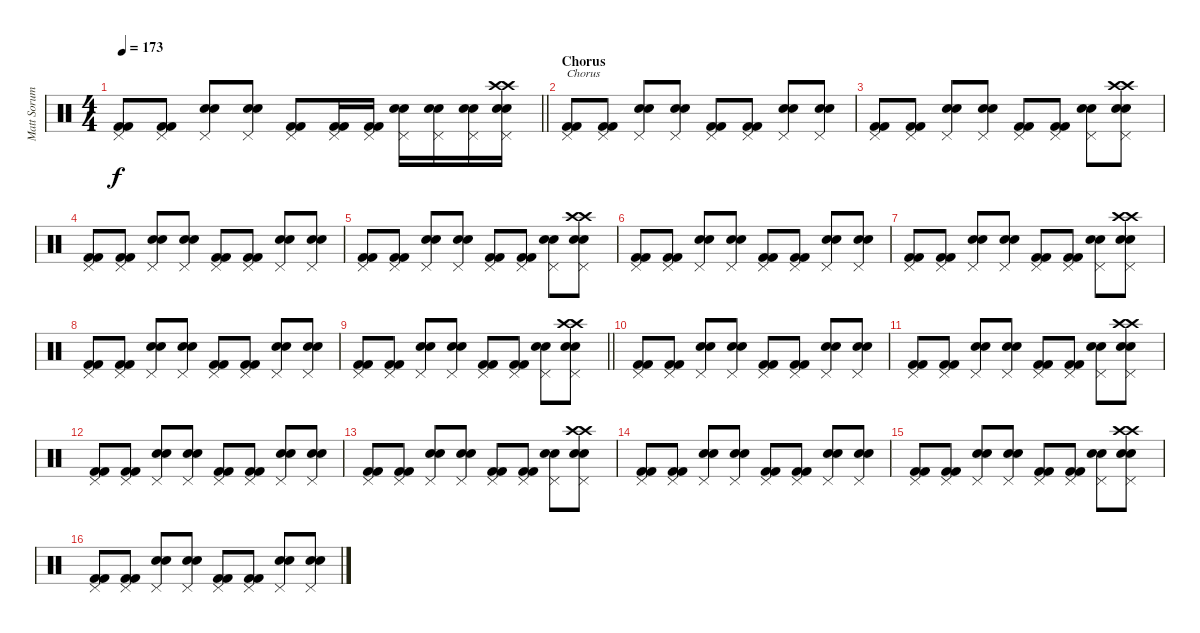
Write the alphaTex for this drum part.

\track ("Matt Sorum" "Matt Sorum") {instrument percussion}
\staff {score}
\articulation defaults
\ts (4 4)
\tempo 173
\clef neutral
\barLineRight lightlight
\ks c
("Pedal Hi-Hat (hit)" "Kick (hit) 2" "Kick (hit) 2").8{dy f} ("Pedal Hi-Hat (hit)" "Kick (hit) 2" "Kick (hit) 2").8 ("Pedal Hi-Hat (hit)" "Snare (hit) 2" "Snare (hit) 2").8 ("Pedal Hi-Hat (hit)" "Snare (hit) 2" "Snare (hit) 2").8 ("Pedal Hi-Hat (hit)" "Kick (hit) 2" "Kick (hit) 2").8 ("Pedal Hi-Hat (hit)" "Kick (hit) 2" "Kick (hit) 2").16 ("Pedal Hi-Hat (hit)" "Kick (hit) 2" "Kick (hit) 2").16 ("Pedal Hi-Hat (hit)" "Snare (hit) 2" "Snare (hit) 2").16 ("Pedal Hi-Hat (hit)" "Snare (hit) 2" "Snare (hit) 2").16 ("Pedal Hi-Hat (hit)" "Snare (hit) 2" "Snare (hit) 2").16 ("Crash high (hit)" "Crash high (hit)" "Pedal Hi-Hat (hit)" "Snare (hit) 2" "Snare (hit) 2").16 |
\section ("" "Chorus")
("Pedal Hi-Hat (hit)" "Kick (hit) 2" "Kick (hit) 2").8{txt "Chorus"} ("Pedal Hi-Hat (hit)" "Kick (hit) 2" "Kick (hit) 2").8 ("Pedal Hi-Hat (hit)" "Snare (hit) 2" "Snare (hit) 2").8 ("Pedal Hi-Hat (hit)" "Snare (hit) 2" "Snare (hit) 2").8 ("Pedal Hi-Hat (hit)" "Kick (hit) 2" "Kick (hit) 2").8 ("Pedal Hi-Hat (hit)" "Kick (hit) 2" "Kick (hit) 2").8 ("Pedal Hi-Hat (hit)" "Snare (hit) 2" "Snare (hit) 2").8 ("Pedal Hi-Hat (hit)" "Snare (hit) 2" "Snare (hit) 2").8 |
("Pedal Hi-Hat (hit)" "Kick (hit) 2" "Kick (hit) 2").8 ("Pedal Hi-Hat (hit)" "Kick (hit) 2" "Kick (hit) 2").8 ("Pedal Hi-Hat (hit)" "Snare (hit) 2" "Snare (hit) 2").8 ("Pedal Hi-Hat (hit)" "Snare (hit) 2" "Snare (hit) 2").8 ("Pedal Hi-Hat (hit)" "Kick (hit) 2" "Kick (hit) 2").8 ("Pedal Hi-Hat (hit)" "Kick (hit) 2" "Kick (hit) 2").8 ("Pedal Hi-Hat (hit)" "Snare (hit) 2" "Snare (hit) 2").8 ("Crash high (hit)" "Crash high (hit)" "Pedal Hi-Hat (hit)" "Snare (hit) 2" "Snare (hit) 2").8 |
("Pedal Hi-Hat (hit)" "Kick (hit) 2" "Kick (hit) 2").8 ("Pedal Hi-Hat (hit)" "Kick (hit) 2" "Kick (hit) 2").8 ("Pedal Hi-Hat (hit)" "Snare (hit) 2" "Snare (hit) 2").8 ("Pedal Hi-Hat (hit)" "Snare (hit) 2" "Snare (hit) 2").8 ("Pedal Hi-Hat (hit)" "Kick (hit) 2" "Kick (hit) 2").8 ("Pedal Hi-Hat (hit)" "Kick (hit) 2" "Kick (hit) 2").8 ("Pedal Hi-Hat (hit)" "Snare (hit) 2" "Snare (hit) 2").8 ("Pedal Hi-Hat (hit)" "Snare (hit) 2" "Snare (hit) 2").8 |
("Pedal Hi-Hat (hit)" "Kick (hit) 2" "Kick (hit) 2").8 ("Pedal Hi-Hat (hit)" "Kick (hit) 2" "Kick (hit) 2").8 ("Pedal Hi-Hat (hit)" "Snare (hit) 2" "Snare (hit) 2").8 ("Pedal Hi-Hat (hit)" "Snare (hit) 2" "Snare (hit) 2").8 ("Pedal Hi-Hat (hit)" "Kick (hit) 2" "Kick (hit) 2").8 ("Pedal Hi-Hat (hit)" "Kick (hit) 2" "Kick (hit) 2").8 ("Pedal Hi-Hat (hit)" "Snare (hit) 2" "Snare (hit) 2").8 ("Crash high (hit)" "Crash high (hit)" "Pedal Hi-Hat (hit)" "Snare (hit) 2" "Snare (hit) 2").8 |
("Pedal Hi-Hat (hit)" "Kick (hit) 2" "Kick (hit) 2").8 ("Pedal Hi-Hat (hit)" "Kick (hit) 2" "Kick (hit) 2").8 ("Pedal Hi-Hat (hit)" "Snare (hit) 2" "Snare (hit) 2").8 ("Pedal Hi-Hat (hit)" "Snare (hit) 2" "Snare (hit) 2").8 ("Pedal Hi-Hat (hit)" "Kick (hit) 2" "Kick (hit) 2").8 ("Pedal Hi-Hat (hit)" "Kick (hit) 2" "Kick (hit) 2").8 ("Pedal Hi-Hat (hit)" "Snare (hit) 2" "Snare (hit) 2").8 ("Pedal Hi-Hat (hit)" "Snare (hit) 2" "Snare (hit) 2").8 |
("Pedal Hi-Hat (hit)" "Kick (hit) 2" "Kick (hit) 2").8 ("Pedal Hi-Hat (hit)" "Kick (hit) 2" "Kick (hit) 2").8 ("Pedal Hi-Hat (hit)" "Snare (hit) 2" "Snare (hit) 2").8 ("Pedal Hi-Hat (hit)" "Snare (hit) 2" "Snare (hit) 2").8 ("Pedal Hi-Hat (hit)" "Kick (hit) 2" "Kick (hit) 2").8 ("Pedal Hi-Hat (hit)" "Kick (hit) 2" "Kick (hit) 2").8 ("Pedal Hi-Hat (hit)" "Snare (hit) 2" "Snare (hit) 2").8 ("Crash high (hit)" "Crash high (hit)" "Pedal Hi-Hat (hit)" "Snare (hit) 2" "Snare (hit) 2").8 |
("Pedal Hi-Hat (hit)" "Kick (hit) 2" "Kick (hit) 2").8 ("Pedal Hi-Hat (hit)" "Kick (hit) 2" "Kick (hit) 2").8 ("Pedal Hi-Hat (hit)" "Snare (hit) 2" "Snare (hit) 2").8 ("Pedal Hi-Hat (hit)" "Snare (hit) 2" "Snare (hit) 2").8 ("Pedal Hi-Hat (hit)" "Kick (hit) 2" "Kick (hit) 2").8 ("Pedal Hi-Hat (hit)" "Kick (hit) 2" "Kick (hit) 2").8 ("Pedal Hi-Hat (hit)" "Snare (hit) 2" "Snare (hit) 2").8 ("Pedal Hi-Hat (hit)" "Snare (hit) 2" "Snare (hit) 2").8 |
\barLineRight lightlight
("Pedal Hi-Hat (hit)" "Kick (hit) 2" "Kick (hit) 2").8 ("Pedal Hi-Hat (hit)" "Kick (hit) 2" "Kick (hit) 2").8 ("Pedal Hi-Hat (hit)" "Snare (hit) 2" "Snare (hit) 2").8 ("Pedal Hi-Hat (hit)" "Snare (hit) 2" "Snare (hit) 2").8 ("Pedal Hi-Hat (hit)" "Kick (hit) 2" "Kick (hit) 2").8 ("Pedal Hi-Hat (hit)" "Kick (hit) 2" "Kick (hit) 2").8 ("Pedal Hi-Hat (hit)" "Snare (hit) 2" "Snare (hit) 2").8 ("Crash high (hit)" "Crash high (hit)" "Pedal Hi-Hat (hit)" "Snare (hit) 2" "Snare (hit) 2").8 |
("Pedal Hi-Hat (hit)" "Kick (hit) 2" "Kick (hit) 2").8 ("Pedal Hi-Hat (hit)" "Kick (hit) 2" "Kick (hit) 2").8 ("Pedal Hi-Hat (hit)" "Snare (hit) 2" "Snare (hit) 2").8 ("Pedal Hi-Hat (hit)" "Snare (hit) 2" "Snare (hit) 2").8 ("Pedal Hi-Hat (hit)" "Kick (hit) 2" "Kick (hit) 2").8 ("Pedal Hi-Hat (hit)" "Kick (hit) 2" "Kick (hit) 2").8 ("Pedal Hi-Hat (hit)" "Snare (hit) 2" "Snare (hit) 2").8 ("Pedal Hi-Hat (hit)" "Snare (hit) 2" "Snare (hit) 2").8 |
("Pedal Hi-Hat (hit)" "Kick (hit) 2" "Kick (hit) 2").8 ("Pedal Hi-Hat (hit)" "Kick (hit) 2" "Kick (hit) 2").8 ("Pedal Hi-Hat (hit)" "Snare (hit) 2" "Snare (hit) 2").8 ("Pedal Hi-Hat (hit)" "Snare (hit) 2" "Snare (hit) 2").8 ("Pedal Hi-Hat (hit)" "Kick (hit) 2" "Kick (hit) 2").8 ("Pedal Hi-Hat (hit)" "Kick (hit) 2" "Kick (hit) 2").8 ("Pedal Hi-Hat (hit)" "Snare (hit) 2" "Snare (hit) 2").8 ("Crash high (hit)" "Crash high (hit)" "Pedal Hi-Hat (hit)" "Snare (hit) 2" "Snare (hit) 2").8 |
("Pedal Hi-Hat (hit)" "Kick (hit) 2" "Kick (hit) 2").8 ("Pedal Hi-Hat (hit)" "Kick (hit) 2" "Kick (hit) 2").8 ("Pedal Hi-Hat (hit)" "Snare (hit) 2" "Snare (hit) 2").8 ("Pedal Hi-Hat (hit)" "Snare (hit) 2" "Snare (hit) 2").8 ("Pedal Hi-Hat (hit)" "Kick (hit) 2" "Kick (hit) 2").8 ("Pedal Hi-Hat (hit)" "Kick (hit) 2" "Kick (hit) 2").8 ("Pedal Hi-Hat (hit)" "Snare (hit) 2" "Snare (hit) 2").8 ("Pedal Hi-Hat (hit)" "Snare (hit) 2" "Snare (hit) 2").8 |
("Pedal Hi-Hat (hit)" "Kick (hit) 2" "Kick (hit) 2").8 ("Pedal Hi-Hat (hit)" "Kick (hit) 2" "Kick (hit) 2").8 ("Pedal Hi-Hat (hit)" "Snare (hit) 2" "Snare (hit) 2").8 ("Pedal Hi-Hat (hit)" "Snare (hit) 2" "Snare (hit) 2").8 ("Pedal Hi-Hat (hit)" "Kick (hit) 2" "Kick (hit) 2").8 ("Pedal Hi-Hat (hit)" "Kick (hit) 2" "Kick (hit) 2").8 ("Pedal Hi-Hat (hit)" "Snare (hit) 2" "Snare (hit) 2").8 ("Crash high (hit)" "Crash high (hit)" "Pedal Hi-Hat (hit)" "Snare (hit) 2" "Snare (hit) 2").8 |
("Pedal Hi-Hat (hit)" "Kick (hit) 2" "Kick (hit) 2").8 ("Pedal Hi-Hat (hit)" "Kick (hit) 2" "Kick (hit) 2").8 ("Pedal Hi-Hat (hit)" "Snare (hit) 2" "Snare (hit) 2").8 ("Pedal Hi-Hat (hit)" "Snare (hit) 2" "Snare (hit) 2").8 ("Pedal Hi-Hat (hit)" "Kick (hit) 2" "Kick (hit) 2").8 ("Pedal Hi-Hat (hit)" "Kick (hit) 2" "Kick (hit) 2").8 ("Pedal Hi-Hat (hit)" "Snare (hit) 2" "Snare (hit) 2").8 ("Pedal Hi-Hat (hit)" "Snare (hit) 2" "Snare (hit) 2").8 |
("Pedal Hi-Hat (hit)" "Kick (hit) 2" "Kick (hit) 2").8 ("Pedal Hi-Hat (hit)" "Kick (hit) 2" "Kick (hit) 2").8 ("Pedal Hi-Hat (hit)" "Snare (hit) 2" "Snare (hit) 2").8 ("Pedal Hi-Hat (hit)" "Snare (hit) 2" "Snare (hit) 2").8 ("Pedal Hi-Hat (hit)" "Kick (hit) 2" "Kick (hit) 2").8 ("Pedal Hi-Hat (hit)" "Kick (hit) 2" "Kick (hit) 2").8 ("Pedal Hi-Hat (hit)" "Snare (hit) 2" "Snare (hit) 2").8 ("Crash high (hit)" "Crash high (hit)" "Pedal Hi-Hat (hit)" "Snare (hit) 2" "Snare (hit) 2").8 |
("Pedal Hi-Hat (hit)" "Kick (hit) 2" "Kick (hit) 2").8 ("Pedal Hi-Hat (hit)" "Kick (hit) 2" "Kick (hit) 2").8 ("Pedal Hi-Hat (hit)" "Snare (hit) 2" "Snare (hit) 2").8 ("Pedal Hi-Hat (hit)" "Snare (hit) 2" "Snare (hit) 2").8 ("Pedal Hi-Hat (hit)" "Kick (hit) 2" "Kick (hit) 2").8 ("Pedal Hi-Hat (hit)" "Kick (hit) 2" "Kick (hit) 2").8 ("Pedal Hi-Hat (hit)" "Snare (hit) 2" "Snare (hit) 2").8 ("Pedal Hi-Hat (hit)" "Snare (hit) 2" "Snare (hit) 2").8
